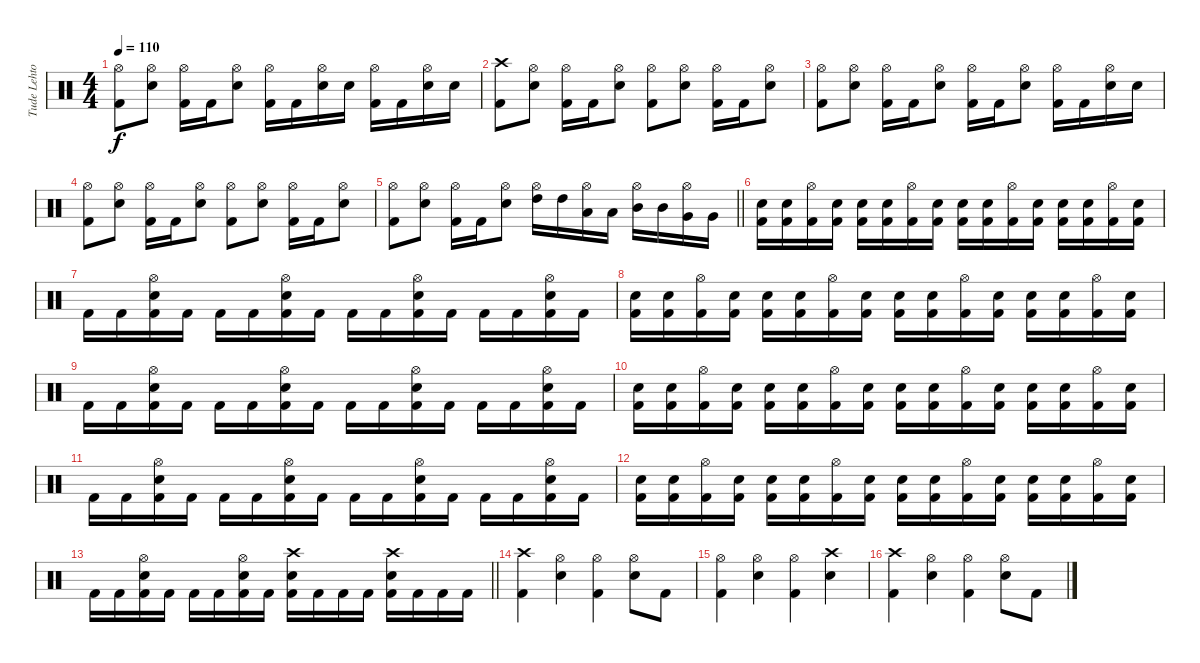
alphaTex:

\track ("Tude Lehtonen" "Tude Lehto") {instrument percussion}
\staff {score}
\articulation defaults
\ts (4 4)
\tempo 110
\clef neutral
\ks c
("Hi-Hat (open)" "Kick (hit) 2").8{dy f} ("Hi-Hat (open)" "Snare (hit) 2").8 ("Hi-Hat (open)" "Kick (hit) 2").16 "Kick (hit) 2".16 ("Hi-Hat (open)" "Snare (hit) 2").8 ("Hi-Hat (open)" "Kick (hit) 2").16 "Kick (hit) 2".16 ("Hi-Hat (open)" "Snare (hit) 2").16 "Snare (hit) 2".16 ("Hi-Hat (open)" "Kick (hit) 2").16 "Kick (hit) 2".16 ("Hi-Hat (open)" "Snare (hit) 2").16 "Snare (hit) 2".16 |
("Crash high (hit)" "Kick (hit) 2").8 ("Hi-Hat (open)" "Snare (hit) 2").8 ("Hi-Hat (open)" "Kick (hit) 2").16 "Kick (hit) 2".16 ("Hi-Hat (open)" "Snare (hit) 2").8 ("Hi-Hat (open)" "Kick (hit) 2").8 ("Hi-Hat (open)" "Snare (hit) 2").8 ("Hi-Hat (open)" "Kick (hit) 2").16 "Kick (hit) 2".16 ("Hi-Hat (open)" "Snare (hit) 2").8 |
("Hi-Hat (open)" "Kick (hit) 2").8 ("Hi-Hat (open)" "Snare (hit) 2").8 ("Hi-Hat (open)" "Kick (hit) 2").16 "Kick (hit) 2".16 ("Hi-Hat (open)" "Snare (hit) 2").8 ("Hi-Hat (open)" "Kick (hit) 2").16 "Kick (hit) 2".16 ("Hi-Hat (open)" "Snare (hit) 2").8 ("Hi-Hat (open)" "Kick (hit) 2").16 "Kick (hit) 2".16 ("Hi-Hat (open)" "Snare (hit) 2").16 "Snare (hit) 2".16 |
("Hi-Hat (open)" "Kick (hit) 2").8 ("Hi-Hat (open)" "Snare (hit) 2").8 ("Hi-Hat (open)" "Kick (hit) 2").16 "Kick (hit) 2".16 ("Hi-Hat (open)" "Snare (hit) 2").8 ("Hi-Hat (open)" "Kick (hit) 2").8 ("Hi-Hat (open)" "Snare (hit) 2").8 ("Hi-Hat (open)" "Kick (hit) 2").16 "Kick (hit) 2".16 ("Hi-Hat (open)" "Snare (hit) 2").8 |
\barLineRight lightlight
("Hi-Hat (open)" "Kick (hit) 2").8 ("Hi-Hat (open)" "Snare (hit) 2").8 ("Hi-Hat (open)" "Kick (hit) 2").16 "Kick (hit) 2".16 ("Hi-Hat (open)" "Snare (hit) 2").8 ("Hi-Hat (open)" "High Tom (hit)").16 "High Tom (hit)".16 ("Hi-Hat (open)" "Low Tom (hit)").16 "Low Tom (hit)".16 ("Hi-Hat (open)" "Mid Tom (hit)").16 "Mid Tom (hit)".16 ("Hi-Hat (open)" "Very Low Tom (hit)").16 "Very Low Tom (hit)".16 |
\section ("" "")
("Snare (hit) 2" "Kick (hit) 2").16 ("Snare (hit) 2" "Kick (hit) 2").16 ("Hi-Hat (open)" "Kick (hit) 2").16 ("Snare (hit) 2" "Kick (hit) 2").16 ("Snare (hit) 2" "Kick (hit) 2").16 ("Snare (hit) 2" "Kick (hit) 2").16 ("Hi-Hat (open)" "Kick (hit) 2").16 ("Snare (hit) 2" "Kick (hit) 2").16 ("Snare (hit) 2" "Kick (hit) 2").16 ("Snare (hit) 2" "Kick (hit) 2").16 ("Hi-Hat (open)" "Kick (hit) 2").16 ("Snare (hit) 2" "Kick (hit) 2").16 ("Snare (hit) 2" "Kick (hit) 2").16 ("Snare (hit) 2" "Kick (hit) 2").16 ("Hi-Hat (open)" "Kick (hit) 2").16 ("Snare (hit) 2" "Kick (hit) 2").16 |
"Kick (hit) 2".16 "Kick (hit) 2".16 ("Hi-Hat (open)" "Snare (hit) 2" "Kick (hit) 2").16 "Kick (hit) 2".16 "Kick (hit) 2".16 "Kick (hit) 2".16 ("Hi-Hat (open)" "Snare (hit) 2" "Kick (hit) 2").16 "Kick (hit) 2".16 "Kick (hit) 2".16 "Kick (hit) 2".16 ("Hi-Hat (open)" "Snare (hit) 2" "Kick (hit) 2").16 "Kick (hit) 2".16 "Kick (hit) 2".16 "Kick (hit) 2".16 ("Hi-Hat (open)" "Snare (hit) 2" "Kick (hit) 2").16 "Kick (hit) 2".16 |
("Snare (hit) 2" "Kick (hit) 2").16 ("Snare (hit) 2" "Kick (hit) 2").16 ("Hi-Hat (open)" "Kick (hit) 2").16 ("Snare (hit) 2" "Kick (hit) 2").16 ("Snare (hit) 2" "Kick (hit) 2").16 ("Snare (hit) 2" "Kick (hit) 2").16 ("Hi-Hat (open)" "Kick (hit) 2").16 ("Snare (hit) 2" "Kick (hit) 2").16 ("Snare (hit) 2" "Kick (hit) 2").16 ("Snare (hit) 2" "Kick (hit) 2").16 ("Hi-Hat (open)" "Kick (hit) 2").16 ("Snare (hit) 2" "Kick (hit) 2").16 ("Snare (hit) 2" "Kick (hit) 2").16 ("Snare (hit) 2" "Kick (hit) 2").16 ("Hi-Hat (open)" "Kick (hit) 2").16 ("Snare (hit) 2" "Kick (hit) 2").16 |
"Kick (hit) 2".16 "Kick (hit) 2".16 ("Hi-Hat (open)" "Snare (hit) 2" "Kick (hit) 2").16 "Kick (hit) 2".16 "Kick (hit) 2".16 "Kick (hit) 2".16 ("Hi-Hat (open)" "Snare (hit) 2" "Kick (hit) 2").16 "Kick (hit) 2".16 "Kick (hit) 2".16 "Kick (hit) 2".16 ("Hi-Hat (open)" "Snare (hit) 2" "Kick (hit) 2").16 "Kick (hit) 2".16 "Kick (hit) 2".16 "Kick (hit) 2".16 ("Hi-Hat (open)" "Snare (hit) 2" "Kick (hit) 2").16 "Kick (hit) 2".16 |
("Snare (hit) 2" "Kick (hit) 2").16 ("Snare (hit) 2" "Kick (hit) 2").16 ("Hi-Hat (open)" "Kick (hit) 2").16 ("Snare (hit) 2" "Kick (hit) 2").16 ("Snare (hit) 2" "Kick (hit) 2").16 ("Snare (hit) 2" "Kick (hit) 2").16 ("Hi-Hat (open)" "Kick (hit) 2").16 ("Snare (hit) 2" "Kick (hit) 2").16 ("Snare (hit) 2" "Kick (hit) 2").16 ("Snare (hit) 2" "Kick (hit) 2").16 ("Hi-Hat (open)" "Kick (hit) 2").16 ("Snare (hit) 2" "Kick (hit) 2").16 ("Snare (hit) 2" "Kick (hit) 2").16 ("Snare (hit) 2" "Kick (hit) 2").16 ("Hi-Hat (open)" "Kick (hit) 2").16 ("Snare (hit) 2" "Kick (hit) 2").16 |
"Kick (hit) 2".16 "Kick (hit) 2".16 ("Hi-Hat (open)" "Snare (hit) 2" "Kick (hit) 2").16 "Kick (hit) 2".16 "Kick (hit) 2".16 "Kick (hit) 2".16 ("Hi-Hat (open)" "Snare (hit) 2" "Kick (hit) 2").16 "Kick (hit) 2".16 "Kick (hit) 2".16 "Kick (hit) 2".16 ("Hi-Hat (open)" "Snare (hit) 2" "Kick (hit) 2").16 "Kick (hit) 2".16 "Kick (hit) 2".16 "Kick (hit) 2".16 ("Hi-Hat (open)" "Snare (hit) 2" "Kick (hit) 2").16 "Kick (hit) 2".16 |
("Snare (hit) 2" "Kick (hit) 2").16 ("Snare (hit) 2" "Kick (hit) 2").16 ("Hi-Hat (open)" "Kick (hit) 2").16 ("Snare (hit) 2" "Kick (hit) 2").16 ("Snare (hit) 2" "Kick (hit) 2").16 ("Snare (hit) 2" "Kick (hit) 2").16 ("Hi-Hat (open)" "Kick (hit) 2").16 ("Snare (hit) 2" "Kick (hit) 2").16 ("Snare (hit) 2" "Kick (hit) 2").16 ("Snare (hit) 2" "Kick (hit) 2").16 ("Hi-Hat (open)" "Kick (hit) 2").16 ("Snare (hit) 2" "Kick (hit) 2").16 ("Snare (hit) 2" "Kick (hit) 2").16 ("Snare (hit) 2" "Kick (hit) 2").16 ("Hi-Hat (open)" "Kick (hit) 2").16 ("Snare (hit) 2" "Kick (hit) 2").16 |
\barLineRight lightlight "Kick (hit) 2".16 "Kick (hit) 2".16
("Hi-Hat (open)" "Snare (hit) 2" "Kick (hit) 2").16 "Kick (hit) 2".16 "Kick (hit) 2".16 "Kick (hit) 2".16 ("Hi-Hat (open)" "Snare (hit) 2" "Kick (hit) 2").16 "Kick (hit) 2".16 ("Crash high (hit)" "Snare (hit) 2" "Kick (hit) 2").16 "Kick (hit) 2".16 "Kick (hit) 2".16 "Kick (hit) 2".16 ("Crash high (hit)" "Snare (hit) 2" "Kick (hit) 2").16 "Kick (hit) 2".16 "Kick (hit) 2".16 "Kick (hit) 2".16 |
\section ("" "")
("Crash high (hit)" "Kick (hit) 2").4 ("Hi-Hat (open)" "Snare (hit) 2").4 ("Hi-Hat (open)" "Kick (hit) 2").4 ("Hi-Hat (open)" "Snare (hit) 2").8 "Kick (hit) 2".8 |
("Hi-Hat (open)" "Kick (hit) 2").4 ("Hi-Hat (open)" "Snare (hit) 2").4 ("Hi-Hat (open)" "Kick (hit) 2").4 ("Crash high (hit)" "Snare (hit) 2").4 |
("Crash high (hit)" "Kick (hit) 2").4 ("Hi-Hat (open)" "Snare (hit) 2").4 ("Hi-Hat (open)" "Kick (hit) 2").4 ("Hi-Hat (open)" "Snare (hit) 2").8 "Kick (hit) 2".8
